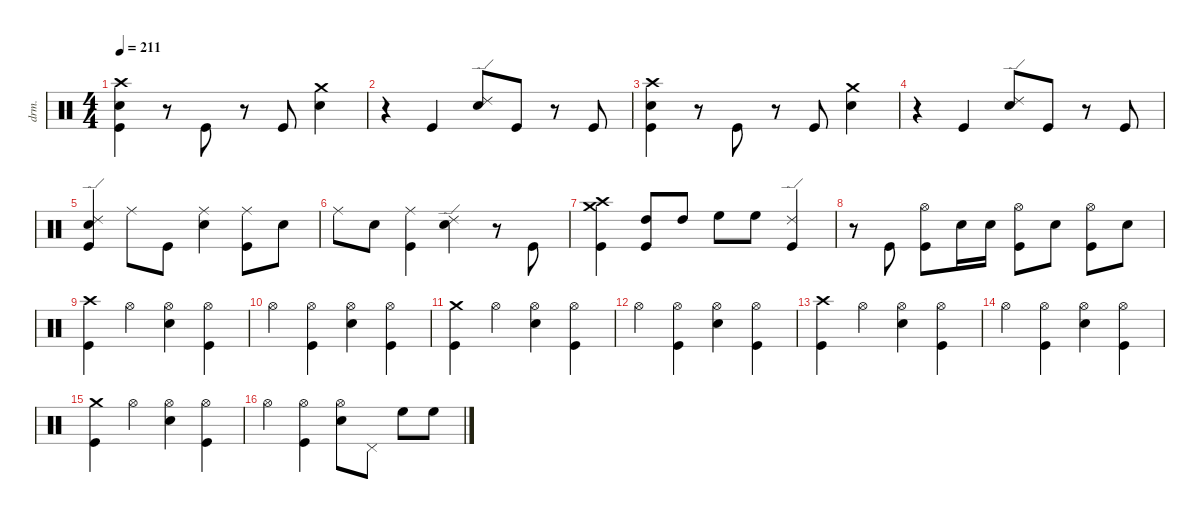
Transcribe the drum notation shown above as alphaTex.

\defaultSystemsLayout 4
\hideDynamics
\bracketExtendMode nobrackets
\otherSystemsTrackNameOrientation horizontal
\track ("Drums" "drm.") {instrument percussion}
\staff {score}
\articulation defaults
\ts (4 4)
\tempo 211
\clef neutral
\ks c
("Kick (hit)" "Snare (hit) 2" "Crash high (hit)"{acc #}).4{dy ff beam Down} r.8{beam Down} "Kick (hit)".8{beam Up} r.8{beam Up} "Kick (hit)".8{beam Up} ("Snare (hit) 2" "Crash medium (hit)").4{beam Down} |
r.4{beam Down} "Kick (hit)".4{beam Up} ("Snare (hit) 2" "Ride (edge) 2").8{beam Up} "Kick (hit)".8{beam Up} r.8{beam Up} "Kick (hit)".8{beam Up} |
("Kick (hit)" "Snare (hit) 2" "Crash high (hit)"{acc #}).4{beam Down} r.8{beam Down} "Kick (hit)".8{beam Up} r.8{beam Up} "Kick (hit)".8{beam Up} ("Snare (hit) 2" "Crash medium (hit)").4{beam Down} |
r.4{beam Down} "Kick (hit)".4{beam Up} ("Snare (hit) 2" "Ride (edge) 2").8{beam Up} "Kick (hit)".8{beam Up} r.8{beam Up} "Kick (hit)".8{beam Up} |
("Kick (hit)" "Snare (hit) 2" "Ride (edge) 2").4{beam Up} "Ride (middle)"{acc #}.8{beam Down} "Kick (hit)".8{beam Down} ("Snare (hit) 2" "Ride (middle)"{acc #}).4{beam Down} ("Kick (hit)" "Ride (middle)"{acc #}).8{beam Down} "Snare (hit) 2".8{dy f beam Down} |
"Ride (middle)"{acc #}.8{dy fff beam Down} "Snare (hit) 2".8{dy mf beam Down} ("Kick (hit)" "Ride (middle)"{acc #}).4{dy ff beam Down} ("Snare (hit) 2" "Ride (edge) 2").4{beam Down} r.8{beam Down} "Kick (hit)".8{dy mf beam Up} |
("Kick (hit)" "Crash high (hit)"{acc #} "Crash medium (hit)").4{dy ff beam Down} ("Kick (hit)" "High Tom (hit)").8{beam Up} "High Tom (hit)".8{dy f beam Up} "High Floor Tom (hit)".8{dy ff beam Down} "High Floor Tom (hit)".8{dy f beam Down} ("Kick (hit)" "Ride (edge) 2").4{dy ff beam Up} |
r.8{beam Down} "Kick (hit)".8{dy mf beam Up} ("Kick (hit)" "Hi-Hat (open)"{acc #}).8{dy fff beam Down} "Snare (hit) 2".16{dy mp beam Down} "Snare (hit) 2".16{dy p beam Down} ("Kick (hit)" "Hi-Hat (open)"{acc #}).8{dy ff beam Down} "Snare (hit) 2".8{dy f beam Down} ("Kick (hit)" "Hi-Hat (open)"{acc #}).8{dy ff beam Down} "Snare (hit) 2".8{dy f beam Down} |
("Kick (hit)" "Crash high (hit)"{acc #}).4{dy ff beam Down} "Hi-Hat (open)"{acc #}.4{dy f beam Down} ("Snare (hit) 2" "Hi-Hat (open)"{acc #}).4{dy ff beam Down} ("Kick (hit)" "Hi-Hat (open)"{acc #}).4{beam Down} |
"Hi-Hat (open)"{acc #}.4{dy fff beam Down} ("Kick (hit)" "Hi-Hat (open)"{acc #}).4{dy ff beam Down} ("Snare (hit) 2" "Hi-Hat (open)"{acc #}).4{beam Down} ("Kick (hit)" "Hi-Hat (open)"{acc #}).4{beam Down} |
("Kick (hit)" "Crash medium (hit)").4{beam Down} "Hi-Hat (open)"{acc #}.4{dy f beam Down} ("Snare (hit) 2" "Hi-Hat (open)"{acc #}).4{dy ff beam Down} ("Kick (hit)" "Hi-Hat (open)"{acc #}).4{beam Down} |
"Hi-Hat (open)"{acc #}.4{dy fff beam Down} ("Kick (hit)" "Hi-Hat (open)"{acc #}).4{dy ff beam Down} ("Snare (hit) 2" "Hi-Hat (open)"{acc #}).4{beam Down} ("Kick (hit)" "Hi-Hat (open)"{acc #}).4{beam Down} |
("Kick (hit)" "Crash high (hit)"{acc #}).4{beam Down} "Hi-Hat (open)"{acc #}.4{dy f beam Down} ("Snare (hit) 2" "Hi-Hat (open)"{acc #}).4{dy ff beam Down} ("Kick (hit)" "Hi-Hat (open)"{acc #}).4{beam Down} |
"Hi-Hat (open)"{acc #}.4{dy fff beam Down} ("Kick (hit)" "Hi-Hat (open)"{acc #}).4{dy ff beam Down} ("Snare (hit) 2" "Hi-Hat (open)"{acc #}).4{beam Down} ("Kick (hit)" "Hi-Hat (open)"{acc #}).4{beam Down} |
("Kick (hit)" "Crash medium (hit)").4{beam Down} "Hi-Hat (open)"{acc #}.4{dy f beam Down} ("Snare (hit) 2" "Hi-Hat (open)"{acc #}).4{dy ff beam Down} ("Kick (hit)" "Hi-Hat (open)"{acc #}).4{beam Down} |
"Hi-Hat (open)"{acc #}.4{dy fff beam Down} ("Kick (hit)" "Hi-Hat (open)"{acc #}).4{dy ff beam Down} ("Snare (hit) 2" "Hi-Hat (open)"{acc #}).8{beam Down} "Pedal Hi-Hat (hit)"{acc #}.8{beam Down} "High Floor Tom (hit)".8{beam Down} "High Floor Tom (hit)".8{beam Down}
